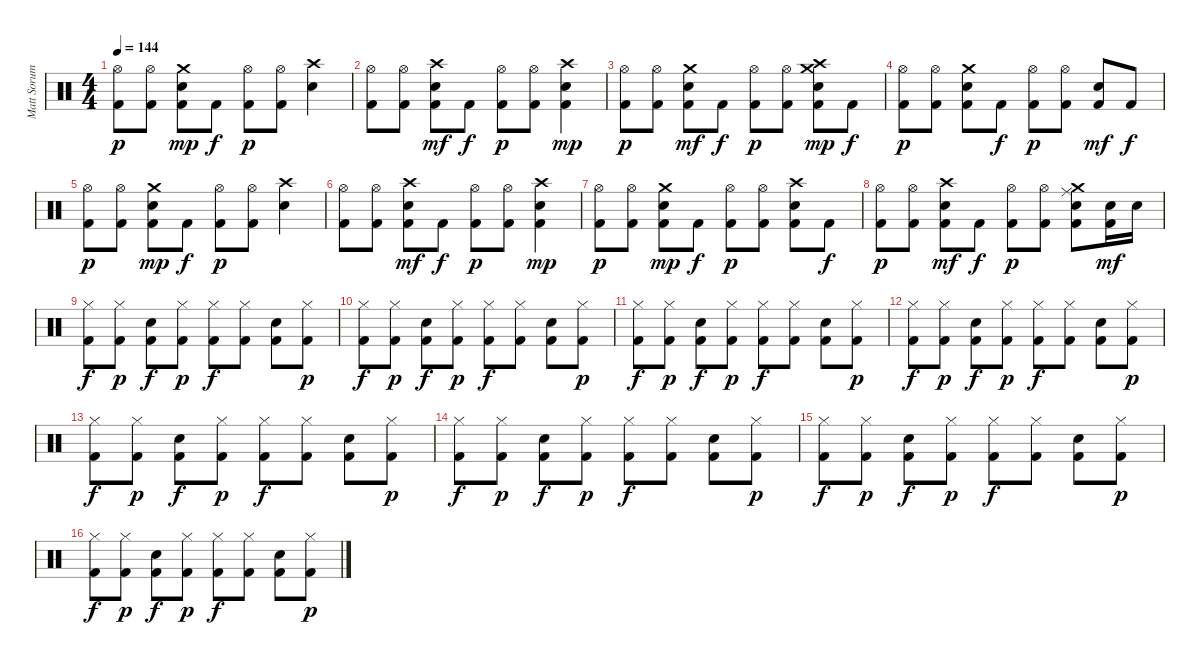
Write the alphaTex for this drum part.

\track ("Matt Sorum" "Matt Sorum") {instrument percussion}
\staff {score}
\articulation defaults
\ts (4 4)
\tempo 144
\clef neutral
\ks c
("Kick (hit) 2" "Hi-Hat (open)").8{dy p} ("Kick (hit) 2" "Hi-Hat (open)").8 ("Kick (hit) 2" "Snare (hit) 2" "Crash medium (hit)").8{dy mp} "Kick (hit) 2".8{dy f} ("Kick (hit) 2" "Hi-Hat (open)").8{dy p} ("Kick (hit) 2" "Hi-Hat (open)").8 ("Snare (hit) 2" "Crash high (hit)").4 |
("Kick (hit) 2" "Hi-Hat (open)").8 ("Kick (hit) 2" "Hi-Hat (open)").8 ("Kick (hit) 2" "Snare (hit) 2" "Crash high (hit)").8{dy mf} "Kick (hit) 2".8{dy f} ("Kick (hit) 2" "Hi-Hat (open)").8{dy p} ("Kick (hit) 2" "Hi-Hat (open)").8 ("Kick (hit) 2" "Snare (hit) 2" "Crash high (hit)").4{dy mp} |
("Kick (hit) 2" "Hi-Hat (open)").8{dy p} ("Kick (hit) 2" "Hi-Hat (open)").8 ("Kick (hit) 2" "Snare (hit) 2" "Crash medium (hit)").8{dy mf} "Kick (hit) 2".8{dy f} ("Kick (hit) 2" "Hi-Hat (open)").8{dy p} ("Kick (hit) 2" "Hi-Hat (open)").8 ("Kick (hit) 2" "Snare (hit) 2" "Crash high (hit)" "Crash medium (hit)").8{dy mp} "Kick (hit) 2".8{dy f} |
("Kick (hit) 2" "Hi-Hat (open)").8{dy p} ("Kick (hit) 2" "Hi-Hat (open)").8 ("Kick (hit) 2" "Snare (hit) 2" "Crash medium (hit)").8 "Kick (hit) 2".8{dy f} ("Kick (hit) 2" "Hi-Hat (open)").8{dy p} ("Kick (hit) 2" "Hi-Hat (open)").8 ("Kick (hit) 2" "Snare (hit) 2").8{dy mf} "Kick (hit) 2".8{dy f} |
("Kick (hit) 2" "Hi-Hat (open)").8{dy p} ("Kick (hit) 2" "Hi-Hat (open)").8 ("Kick (hit) 2" "Snare (hit) 2" "Crash medium (hit)").8{dy mp} "Kick (hit) 2".8{dy f} ("Kick (hit) 2" "Hi-Hat (open)").8{dy p} ("Kick (hit) 2" "Hi-Hat (open)").8 ("Snare (hit) 2" "Crash high (hit)").4 |
("Kick (hit) 2" "Hi-Hat (open)").8 ("Kick (hit) 2" "Hi-Hat (open)").8 ("Kick (hit) 2" "Snare (hit) 2" "Crash high (hit)").8{dy mf} "Kick (hit) 2".8{dy f} ("Kick (hit) 2" "Hi-Hat (open)").8{dy p} ("Kick (hit) 2" "Hi-Hat (open)").8 ("Kick (hit) 2" "Snare (hit) 2" "Crash high (hit)").4{dy mp} |
("Kick (hit) 2" "Hi-Hat (open)").8{dy p} ("Kick (hit) 2" "Hi-Hat (open)").8 ("Kick (hit) 2" "Snare (hit) 2" "Crash medium (hit)").8{dy mp} "Kick (hit) 2".8{dy f} ("Kick (hit) 2" "Hi-Hat (open)").8{dy p} ("Kick (hit) 2" "Hi-Hat (open)").8 ("Kick (hit) 2" "Snare (hit) 2" "Crash high (hit)").8 "Kick (hit) 2".8{dy f} |
("Kick (hit) 2" "Hi-Hat (open)").8{dy p} ("Kick (hit) 2" "Hi-Hat (open)").8 ("Kick (hit) 2" "Snare (hit) 2" "Crash high (hit)").8{dy mf} "Kick (hit) 2".8{dy f} ("Kick (hit) 2" "Hi-Hat (open)").8{dy p} ("Kick (hit) 2" "Hi-Hat (open)").8 ("Kick (hit) 2" "Snare (hit) 2" "Crash medium (hit)" "Ride (middle)").8 ("Kick (hit) 2" "Snare (hit) 2").16{dy mf} "Snare (hit) 2".16 |
("Kick (hit) 2" "Hi-Hat (closed)").8{dy f} ("Kick (hit) 2" "Hi-Hat (closed)").8{dy p} ("Kick (hit) 2" "Snare (hit) 2").8{dy f} ("Kick (hit) 2" "Hi-Hat (closed)").8{dy p} ("Kick (hit) 2" "Hi-Hat (closed)").8{dy f} ("Kick (hit) 2" "Hi-Hat (closed)").8 ("Kick (hit) 2" "Snare (hit) 2").8 ("Kick (hit) 2" "Hi-Hat (closed)").8{dy p} |
("Kick (hit) 2" "Hi-Hat (closed)").8{dy f} ("Kick (hit) 2" "Hi-Hat (closed)").8{dy p} ("Kick (hit) 2" "Snare (hit) 2").8{dy f} ("Kick (hit) 2" "Hi-Hat (closed)").8{dy p} ("Kick (hit) 2" "Hi-Hat (closed)").8{dy f} ("Kick (hit) 2" "Hi-Hat (closed)").8 ("Kick (hit) 2" "Snare (hit) 2").8 ("Kick (hit) 2" "Hi-Hat (closed)").8{dy p} |
("Kick (hit) 2" "Hi-Hat (closed)").8{dy f} ("Kick (hit) 2" "Hi-Hat (closed)").8{dy p} ("Kick (hit) 2" "Snare (hit) 2").8{dy f} ("Kick (hit) 2" "Hi-Hat (closed)").8{dy p} ("Kick (hit) 2" "Hi-Hat (closed)").8{dy f} ("Kick (hit) 2" "Hi-Hat (closed)").8 ("Kick (hit) 2" "Snare (hit) 2").8 ("Kick (hit) 2" "Hi-Hat (closed)").8{dy p} |
("Kick (hit) 2" "Hi-Hat (closed)").8{dy f} ("Kick (hit) 2" "Hi-Hat (closed)").8{dy p} ("Kick (hit) 2" "Snare (hit) 2").8{dy f} ("Kick (hit) 2" "Hi-Hat (closed)").8{dy p} ("Kick (hit) 2" "Hi-Hat (closed)").8{dy f} ("Kick (hit) 2" "Hi-Hat (closed)").8 ("Kick (hit) 2" "Snare (hit) 2").8 ("Kick (hit) 2" "Hi-Hat (closed)").8{dy p} |
("Kick (hit) 2" "Hi-Hat (closed)").8{dy f} ("Kick (hit) 2" "Hi-Hat (closed)").8{dy p} ("Kick (hit) 2" "Snare (hit) 2").8{dy f} ("Kick (hit) 2" "Hi-Hat (closed)").8{dy p} ("Kick (hit) 2" "Hi-Hat (closed)").8{dy f} ("Kick (hit) 2" "Hi-Hat (closed)").8 ("Kick (hit) 2" "Snare (hit) 2").8 ("Kick (hit) 2" "Hi-Hat (closed)").8{dy p} |
("Kick (hit) 2" "Hi-Hat (closed)").8{dy f} ("Kick (hit) 2" "Hi-Hat (closed)").8{dy p} ("Kick (hit) 2" "Snare (hit) 2").8{dy f} ("Kick (hit) 2" "Hi-Hat (closed)").8{dy p} ("Kick (hit) 2" "Hi-Hat (closed)").8{dy f} ("Kick (hit) 2" "Hi-Hat (closed)").8 ("Kick (hit) 2" "Snare (hit) 2").8 ("Kick (hit) 2" "Hi-Hat (closed)").8{dy p} |
("Kick (hit) 2" "Hi-Hat (closed)").8{dy f} ("Kick (hit) 2" "Hi-Hat (closed)").8{dy p} ("Kick (hit) 2" "Snare (hit) 2").8{dy f} ("Kick (hit) 2" "Hi-Hat (closed)").8{dy p} ("Kick (hit) 2" "Hi-Hat (closed)").8{dy f} ("Kick (hit) 2" "Hi-Hat (closed)").8 ("Kick (hit) 2" "Snare (hit) 2").8 ("Kick (hit) 2" "Hi-Hat (closed)").8{dy p} |
("Kick (hit) 2" "Hi-Hat (closed)").8{dy f} ("Kick (hit) 2" "Hi-Hat (closed)").8{dy p} ("Kick (hit) 2" "Snare (hit) 2").8{dy f} ("Kick (hit) 2" "Hi-Hat (closed)").8{dy p} ("Kick (hit) 2" "Hi-Hat (closed)").8{dy f} ("Kick (hit) 2" "Hi-Hat (closed)").8 ("Kick (hit) 2" "Snare (hit) 2").8 ("Kick (hit) 2" "Hi-Hat (closed)").8{dy p}
